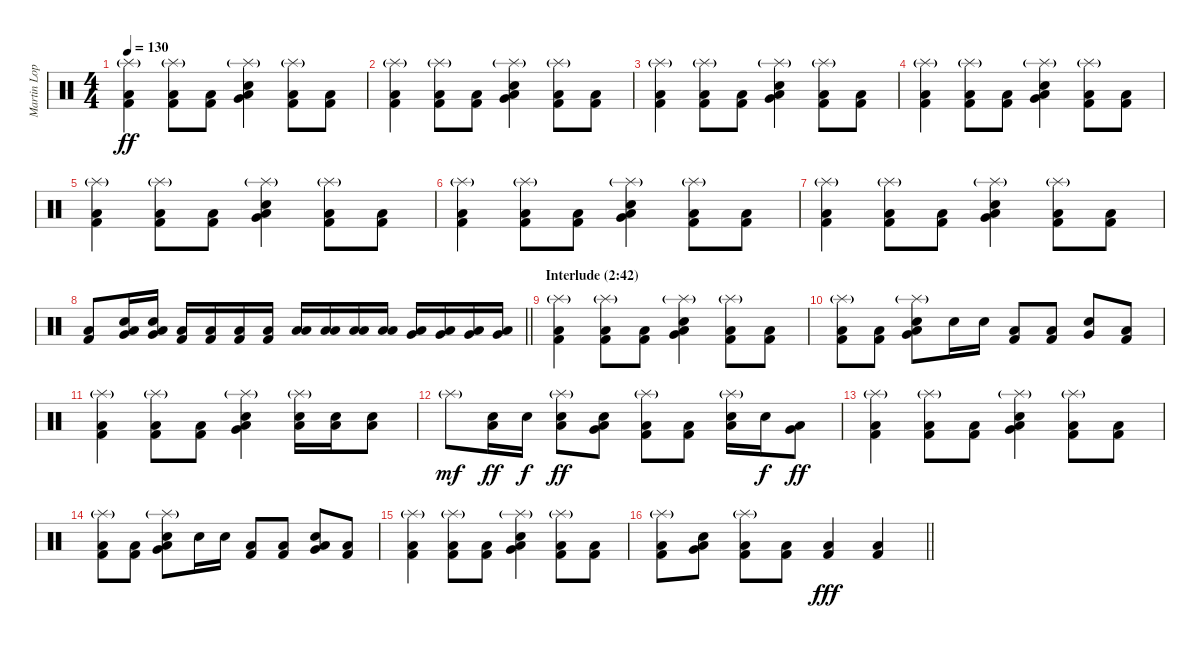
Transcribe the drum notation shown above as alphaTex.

\track ("Martin Lopez" "Martin Lop") {instrument percussion}
\staff {score}
\articulation defaults
\ts (4 4)
\tempo 130
\clef neutral
\ks c
("Splash (hit)"{g} "Kick (hit) 2" "Low Floor Tom (hit)").4{dy ff} ("Splash (hit)"{g} "Kick (hit) 2" "Low Floor Tom (hit)").8 ("Kick (hit) 2" "Low Floor Tom (hit)").8 ("Splash (hit)"{g} "Very Low Tom (hit)" "Snare (hit) 2" "Low Floor Tom (hit)").4 ("Splash (hit)"{g} "Kick (hit) 2" "Low Floor Tom (hit)").8 ("Kick (hit) 2" "Low Floor Tom (hit)").8 |
("Splash (hit)"{g} "Kick (hit) 2" "Low Floor Tom (hit)").4 ("Splash (hit)"{g} "Kick (hit) 2" "Low Floor Tom (hit)").8 ("Kick (hit) 2" "Low Floor Tom (hit)").8 ("Splash (hit)"{g} "Very Low Tom (hit)" "Snare (hit) 2" "Low Floor Tom (hit)").4 ("Splash (hit)"{g} "Kick (hit) 2" "Low Floor Tom (hit)").8 ("Kick (hit) 2" "Low Floor Tom (hit)").8 |
("Splash (hit)"{g} "Kick (hit) 2" "Low Floor Tom (hit)").4 ("Splash (hit)"{g} "Kick (hit) 2" "Low Floor Tom (hit)").8 ("Kick (hit) 2" "Low Floor Tom (hit)").8 ("Splash (hit)"{g} "Very Low Tom (hit)" "Snare (hit) 2" "Low Floor Tom (hit)").4 ("Splash (hit)"{g} "Kick (hit) 2" "Low Floor Tom (hit)").8 ("Kick (hit) 2" "Low Floor Tom (hit)").8 |
("Splash (hit)"{g} "Kick (hit) 2" "Low Floor Tom (hit)").4 ("Splash (hit)"{g} "Kick (hit) 2" "Low Floor Tom (hit)").8 ("Kick (hit) 2" "Low Floor Tom (hit)").8 ("Splash (hit)"{g} "Very Low Tom (hit)" "Snare (hit) 2" "Low Floor Tom (hit)").4 ("Splash (hit)"{g} "Kick (hit) 2" "Low Floor Tom (hit)").8 ("Kick (hit) 2" "Low Floor Tom (hit)").8 |
("Splash (hit)"{g} "Kick (hit) 2" "Low Floor Tom (hit)").4 ("Splash (hit)"{g} "Kick (hit) 2" "Low Floor Tom (hit)").8 ("Kick (hit) 2" "Low Floor Tom (hit)").8 ("Splash (hit)"{g} "Very Low Tom (hit)" "Snare (hit) 2" "Low Floor Tom (hit)").4 ("Splash (hit)"{g} "Kick (hit) 2" "Low Floor Tom (hit)").8 ("Kick (hit) 2" "Low Floor Tom (hit)").8 |
("Splash (hit)"{g} "Kick (hit) 2" "Low Floor Tom (hit)").4 ("Splash (hit)"{g} "Kick (hit) 2" "Low Floor Tom (hit)").8 ("Kick (hit) 2" "Low Floor Tom (hit)").8 ("Splash (hit)"{g} "Very Low Tom (hit)" "Snare (hit) 2" "Low Floor Tom (hit)").4 ("Splash (hit)"{g} "Kick (hit) 2" "Low Floor Tom (hit)").8 ("Kick (hit) 2" "Low Floor Tom (hit)").8 |
("Splash (hit)"{g} "Kick (hit) 2" "Low Floor Tom (hit)").4 ("Splash (hit)"{g} "Kick (hit) 2" "Low Floor Tom (hit)").8 ("Kick (hit) 2" "Low Floor Tom (hit)").8 ("Splash (hit)"{g} "Very Low Tom (hit)" "Snare (hit) 2" "Low Floor Tom (hit)").4 ("Splash (hit)"{g} "Kick (hit) 2" "Low Floor Tom (hit)").8 ("Kick (hit) 2" "Low Floor Tom (hit)").8 |
\barLineRight lightlight
("Kick (hit) 2" "Low Floor Tom (hit)").8 ("Very Low Tom (hit)" "Snare (hit) 2" "Low Floor Tom (hit)").16 ("Very Low Tom (hit)" "Snare (hit) 2" "Low Floor Tom (hit)").16 ("Kick (hit) 2" "Low Floor Tom (hit)").16 ("Kick (hit) 2" "Low Floor Tom (hit)").16 ("Kick (hit) 2" "Low Floor Tom (hit)").16 ("Kick (hit) 2" "Low Floor Tom (hit)").16 ("Low Tom (hit)" "Low Floor Tom (hit)").16 ("Low Tom (hit)" "Low Floor Tom (hit)").16 ("Low Tom (hit)" "Low Floor Tom (hit)").16 ("Low Floor Tom (hit)" "Low Floor Tom (hit)").16 ("Very Low Tom (hit)" "Low Floor Tom (hit)").16 ("Very Low Tom (hit)" "Low Floor Tom (hit)").16 ("Very Low Tom (hit)" "Low Floor Tom (hit)").16 ("Very Low Tom (hit)" "Low Floor Tom (hit)").16 |
\section ("" "Interlude (2:42)")
("Splash (hit)"{g} "Kick (hit) 2" "Low Floor Tom (hit)").4 ("Splash (hit)"{g} "Kick (hit) 2" "Low Floor Tom (hit)").8 ("Kick (hit) 2" "Low Floor Tom (hit)").8 ("Splash (hit)"{g} "Very Low Tom (hit)" "Snare (hit) 2" "Low Floor Tom (hit)").4 ("Splash (hit)"{g} "Kick (hit) 2" "Low Floor Tom (hit)").8 ("Kick (hit) 2" "Low Floor Tom (hit)").8 |
("Splash (hit)"{g} "Kick (hit) 2" "Low Floor Tom (hit)").8 ("Kick (hit) 2" "Low Floor Tom (hit)").8 ("Splash (hit)"{g} "Very Low Tom (hit)" "Snare (hit) 2" "Low Floor Tom (hit)").8 "Snare (hit) 2".16 "Snare (hit) 2".16 ("Kick (hit) 2" "Low Floor Tom (hit)").8 ("Kick (hit) 2" "Low Floor Tom (hit)").8 ("Very Low Tom (hit)" "Snare (hit) 2").8 ("Kick (hit) 2" "Low Floor Tom (hit)").8 |
("Splash (hit)"{g} "Kick (hit) 2" "Low Floor Tom (hit)").4 ("Splash (hit)"{g} "Kick (hit) 2" "Low Floor Tom (hit)").8 ("Kick (hit) 2" "Low Floor Tom (hit)").8 ("Splash (hit)"{g} "Very Low Tom (hit)" "Snare (hit) 2" "Low Floor Tom (hit)").4 ("Splash (hit)"{g} "Snare (hit) 2" "Low Floor Tom (hit)").16 ("Snare (hit) 2" "Low Floor Tom (hit)").16 ("Snare (hit) 2" "Low Floor Tom (hit)").8 |
"Splash (hit)"{g}.8{dy mf} ("Snare (hit) 2" "Low Floor Tom (hit)").16{dy ff} "Snare (hit) 2".16{dy f} ("Splash (hit)"{g} "Snare (hit) 2" "Low Floor Tom (hit)").8{dy ff} ("Very Low Tom (hit)" "Snare (hit) 2" "Low Floor Tom (hit)").8 ("Splash (hit)"{g} "Kick (hit) 2" "Low Floor Tom (hit)").8 ("Kick (hit) 2" "Low Floor Tom (hit)").8 ("Splash (hit)"{g} "Snare (hit) 2" "Low Floor Tom (hit)").16 "Snare (hit) 2".16{dy f} ("Very Low Tom (hit)" "Low Tom (hit)").8{dy ff} |
("Splash (hit)"{g} "Kick (hit) 2" "Low Floor Tom (hit)").4 ("Splash (hit)"{g} "Kick (hit) 2" "Low Floor Tom (hit)").8 ("Kick (hit) 2" "Low Floor Tom (hit)").8 ("Splash (hit)"{g} "Very Low Tom (hit)" "Snare (hit) 2" "Low Floor Tom (hit)").4 ("Splash (hit)"{g} "Kick (hit) 2" "Low Floor Tom (hit)").8 ("Kick (hit) 2" "Low Floor Tom (hit)").8 |
("Splash (hit)"{g} "Kick (hit) 2" "Low Floor Tom (hit)").8 ("Kick (hit) 2" "Low Floor Tom (hit)").8 ("Splash (hit)"{g} "Very Low Tom (hit)" "Snare (hit) 2" "Low Floor Tom (hit)").8 "Snare (hit) 2".16 "Snare (hit) 2".16 ("Kick (hit) 2" "Low Floor Tom (hit)").8 ("Kick (hit) 2" "Low Floor Tom (hit)").8 ("Very Low Tom (hit)" "Snare (hit) 2" "Low Floor Tom (hit)").8 ("Kick (hit) 2" "Low Floor Tom (hit)").8 |
("Splash (hit)"{g} "Kick (hit) 2" "Low Floor Tom (hit)").4 ("Splash (hit)"{g} "Kick (hit) 2" "Low Floor Tom (hit)").8 ("Kick (hit) 2" "Low Floor Tom (hit)").8 ("Splash (hit)"{g} "Very Low Tom (hit)" "Snare (hit) 2" "Low Floor Tom (hit)").4 ("Splash (hit)"{g} "Kick (hit) 2" "Low Floor Tom (hit)").8 ("Kick (hit) 2" "Low Floor Tom (hit)").8 |
\barLineRight lightlight
("Splash (hit)"{g} "Kick (hit) 2" "Low Floor Tom (hit)").8 ("Very Low Tom (hit)" "Snare (hit) 2" "Low Floor Tom (hit)").8 ("Splash (hit)"{g} "Kick (hit) 2" "Low Floor Tom (hit)").8 ("Kick (hit) 2" "Low Floor Tom (hit)").8 ("Kick (hit) 2" "Low Floor Tom (hit)").4{dy fff} ("Kick (hit) 2" "Low Floor Tom (hit)").4
